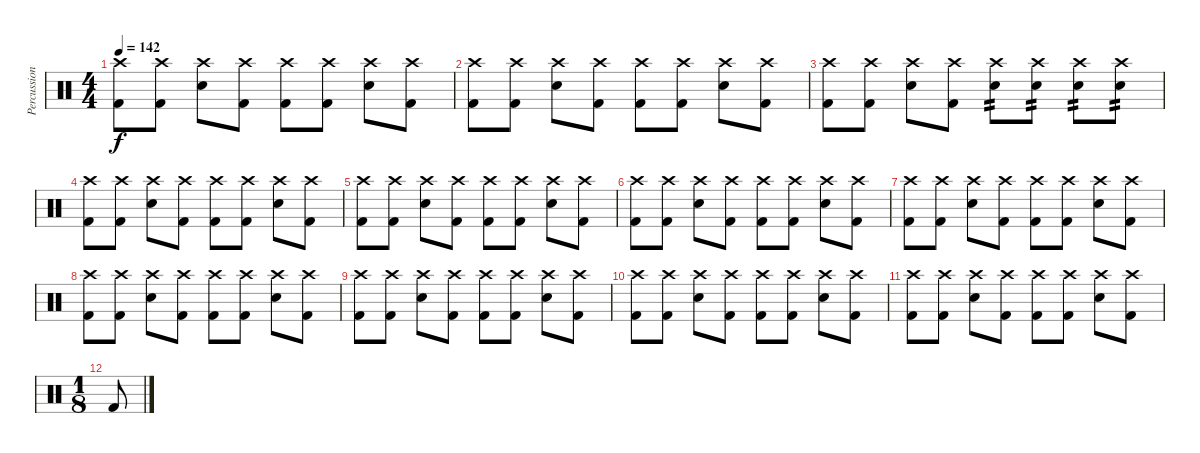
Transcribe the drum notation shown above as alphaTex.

\track ("Percussion" "Percussion") {instrument percussion}
\staff {score}
\articulation defaults
\ts (4 4)
\tempo 142
\clef neutral
\ks c
("Crash high (hit)" "Kick (hit) 2").8{dy f} ("Crash high (hit)" "Kick (hit) 2").8 ("Crash high (hit)" "Snare (hit) 2").8 ("Crash high (hit)" "Kick (hit) 2").8 ("Crash high (hit)" "Kick (hit) 2").8 ("Crash high (hit)" "Kick (hit) 2").8 ("Crash high (hit)" "Snare (hit) 2").8 ("Crash high (hit)" "Kick (hit) 2").8 |
("Crash high (hit)" "Kick (hit) 2").8 ("Crash high (hit)" "Kick (hit) 2").8 ("Crash high (hit)" "Snare (hit) 2").8 ("Crash high (hit)" "Kick (hit) 2").8 ("Crash high (hit)" "Kick (hit) 2").8 ("Crash high (hit)" "Kick (hit) 2").8 ("Crash high (hit)" "Snare (hit) 2").8 ("Crash high (hit)" "Kick (hit) 2").8 |
("Crash high (hit)" "Kick (hit) 2").8 ("Crash high (hit)" "Kick (hit) 2").8 ("Crash high (hit)" "Snare (hit) 2").8 ("Crash high (hit)" "Kick (hit) 2").8 ("Crash high (hit)" "Snare (hit) 2").8{tp 2} ("Crash high (hit)" "Snare (hit) 2").8{tp 2} ("Crash high (hit)" "Snare (hit) 2").8{tp 2} ("Crash high (hit)" "Snare (hit) 2").8{tp 2} |
("Crash high (hit)" "Kick (hit) 2").8 ("Crash high (hit)" "Kick (hit) 2").8 ("Crash high (hit)" "Snare (hit) 2").8 ("Crash high (hit)" "Kick (hit) 2").8 ("Crash high (hit)" "Kick (hit) 2").8 ("Crash high (hit)" "Kick (hit) 2").8 ("Crash high (hit)" "Snare (hit) 2").8 ("Crash high (hit)" "Kick (hit) 2").8 |
("Crash high (hit)" "Kick (hit) 2").8 ("Crash high (hit)" "Kick (hit) 2").8 ("Crash high (hit)" "Snare (hit) 2").8 ("Crash high (hit)" "Kick (hit) 2").8 ("Crash high (hit)" "Kick (hit) 2").8 ("Crash high (hit)" "Kick (hit) 2").8 ("Crash high (hit)" "Snare (hit) 2").8 ("Crash high (hit)" "Kick (hit) 2").8 |
("Crash high (hit)" "Kick (hit) 2").8 ("Crash high (hit)" "Kick (hit) 2").8 ("Crash high (hit)" "Snare (hit) 2").8 ("Crash high (hit)" "Kick (hit) 2").8 ("Crash high (hit)" "Kick (hit) 2").8 ("Crash high (hit)" "Kick (hit) 2").8 ("Crash high (hit)" "Snare (hit) 2").8 ("Crash high (hit)" "Kick (hit) 2").8 |
("Crash high (hit)" "Kick (hit) 2").8 ("Crash high (hit)" "Kick (hit) 2").8 ("Crash high (hit)" "Snare (hit) 2").8 ("Crash high (hit)" "Kick (hit) 2").8 ("Crash high (hit)" "Kick (hit) 2").8 ("Crash high (hit)" "Kick (hit) 2").8 ("Crash high (hit)" "Snare (hit) 2").8 ("Crash high (hit)" "Kick (hit) 2").8 |
("Crash high (hit)" "Kick (hit) 2").8 ("Crash high (hit)" "Kick (hit) 2").8 ("Crash high (hit)" "Snare (hit) 2").8 ("Crash high (hit)" "Kick (hit) 2").8 ("Crash high (hit)" "Kick (hit) 2").8 ("Crash high (hit)" "Kick (hit) 2").8 ("Crash high (hit)" "Snare (hit) 2").8 ("Crash high (hit)" "Kick (hit) 2").8 |
("Crash high (hit)" "Kick (hit) 2").8 ("Crash high (hit)" "Kick (hit) 2").8 ("Crash high (hit)" "Snare (hit) 2").8 ("Crash high (hit)" "Kick (hit) 2").8 ("Crash high (hit)" "Kick (hit) 2").8 ("Crash high (hit)" "Kick (hit) 2").8 ("Crash high (hit)" "Snare (hit) 2").8 ("Crash high (hit)" "Kick (hit) 2").8 |
("Crash high (hit)" "Kick (hit) 2").8 ("Crash high (hit)" "Kick (hit) 2").8 ("Crash high (hit)" "Snare (hit) 2").8 ("Crash high (hit)" "Kick (hit) 2").8 ("Crash high (hit)" "Kick (hit) 2").8 ("Crash high (hit)" "Kick (hit) 2").8 ("Crash high (hit)" "Snare (hit) 2").8 ("Crash high (hit)" "Kick (hit) 2").8 |
("Crash high (hit)" "Kick (hit) 2").8 ("Crash high (hit)" "Kick (hit) 2").8 ("Crash high (hit)" "Snare (hit) 2").8 ("Crash high (hit)" "Kick (hit) 2").8 ("Crash high (hit)" "Kick (hit) 2").8 ("Crash high (hit)" "Kick (hit) 2").8 ("Crash high (hit)" "Snare (hit) 2").8 ("Crash high (hit)" "Kick (hit) 2").8 |
\ts (1 8)
"Kick (hit) 2".8
